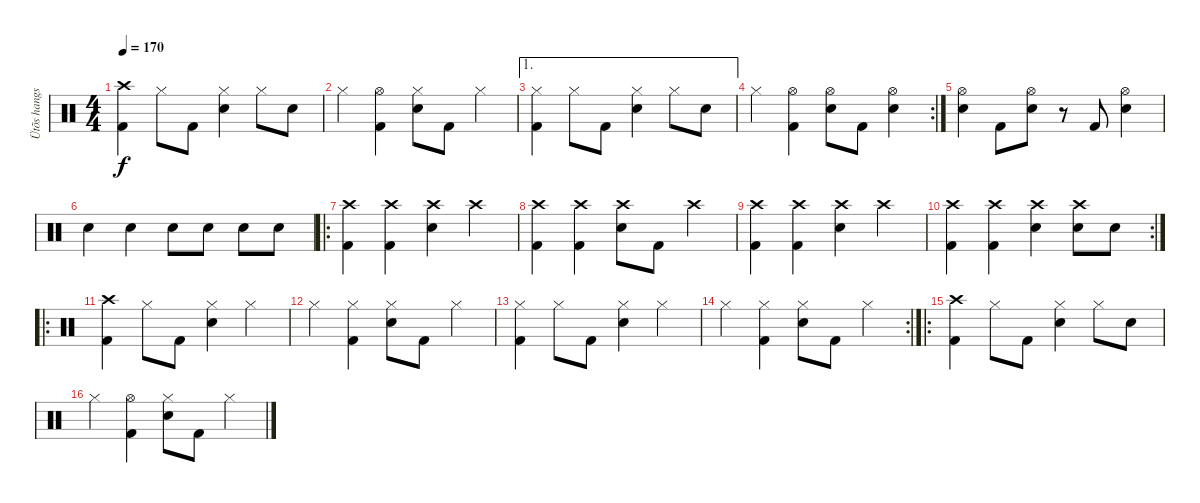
\track ("Ütõs hangszer" "Ütõs hangs") {instrument percussion}
\staff {score}
\articulation defaults
\ts (4 4)
\tempo 170
\clef neutral
\ks c
("Crash high (hit)" "Kick (hit) 2").4{dy f} "Hi-Hat (closed)".8 "Kick (hit) 2".8 ("Hi-Hat (closed)" "Electric Snare (hit)").4 "Hi-Hat (closed)".8 "Electric Snare (hit)".8 |
"Hi-Hat (closed)".4 ("Hi-Hat (open)" "Kick (hit) 2").4 ("Hi-Hat (closed)" "Electric Snare (hit)").8 "Kick (hit) 2".8 "Hi-Hat (closed)".4 |
\ae 1
("Hi-Hat (closed)" "Kick (hit) 2").4 "Hi-Hat (closed)".8 "Kick (hit) 2".8 ("Hi-Hat (closed)" "Electric Snare (hit)").4 "Hi-Hat (closed)".8 "Electric Snare (hit)".8 |
\rc 2 "Hi-Hat (closed)".4
("Hi-Hat (open)" "Kick (hit) 2").4 ("Hi-Hat (open)" "Electric Snare (hit)").8 "Kick (hit) 2".8 ("Hi-Hat (open)" "Electric Snare (hit)").4 |
("Hi-Hat (open)" "Electric Snare (hit)").4 "Kick (hit) 2".8 ("Hi-Hat (open)" "Electric Snare (hit)").8 r.8 "Kick (hit) 2".8 ("Hi-Hat (open)" "Electric Snare (hit)").4 |
"Electric Snare (hit)".4 "Electric Snare (hit)".4 "Electric Snare (hit)".8 "Electric Snare (hit)".8 "Electric Snare (hit)".8 "Electric Snare (hit)".8 |
\ro
("Crash high (hit)" "Kick (hit) 2").4 ("Crash high (hit)" "Kick (hit) 2").4 ("Crash high (hit)" "Electric Snare (hit)").4 "Crash high (hit)".4 |
("Crash high (hit)" "Kick (hit) 2").4 ("Crash high (hit)" "Kick (hit) 2").4 ("Crash high (hit)" "Electric Snare (hit)").8 "Kick (hit) 2".8 "Crash high (hit)".4 |
("Crash high (hit)" "Kick (hit) 2").4 ("Crash high (hit)" "Kick (hit) 2").4 ("Crash high (hit)" "Electric Snare (hit)").4 "Crash high (hit)".4 |
\rc 2
("Crash high (hit)" "Kick (hit) 2").4 ("Crash high (hit)" "Kick (hit) 2").4 ("Crash high (hit)" "Electric Snare (hit)").4 ("Crash high (hit)" "Electric Snare (hit)").8 "Electric Snare (hit)".8 |
\ro
("Crash high (hit)" "Kick (hit) 2").4 "Hi-Hat (closed)".8 "Kick (hit) 2".8 ("Hi-Hat (closed)" "Electric Snare (hit)").4 "Hi-Hat (closed)".4 |
"Hi-Hat (closed)".4 ("Hi-Hat (closed)" "Kick (hit) 2").4 ("Hi-Hat (closed)" "Electric Snare (hit)").8 "Kick (hit) 2".8 "Hi-Hat (closed)".4 |
("Hi-Hat (closed)" "Kick (hit) 2").4 "Hi-Hat (closed)".8 "Kick (hit) 2".8 ("Hi-Hat (closed)" "Electric Snare (hit)").4 "Hi-Hat (closed)".4 |
\rc 2 "Hi-Hat (closed)".4
("Hi-Hat (closed)" "Kick (hit) 2").4 ("Hi-Hat (closed)" "Electric Snare (hit)").8 "Kick (hit) 2".8 "Hi-Hat (closed)".4 |
\ro
("Crash high (hit)" "Kick (hit) 2").4 "Hi-Hat (closed)".8 "Kick (hit) 2".8 ("Hi-Hat (closed)" "Electric Snare (hit)").4 "Hi-Hat (closed)".8 "Electric Snare (hit)".8 |
"Hi-Hat (closed)".4 ("Hi-Hat (open)" "Kick (hit) 2").4 ("Hi-Hat (closed)" "Electric Snare (hit)").8 "Kick (hit) 2".8 "Hi-Hat (closed)".4
